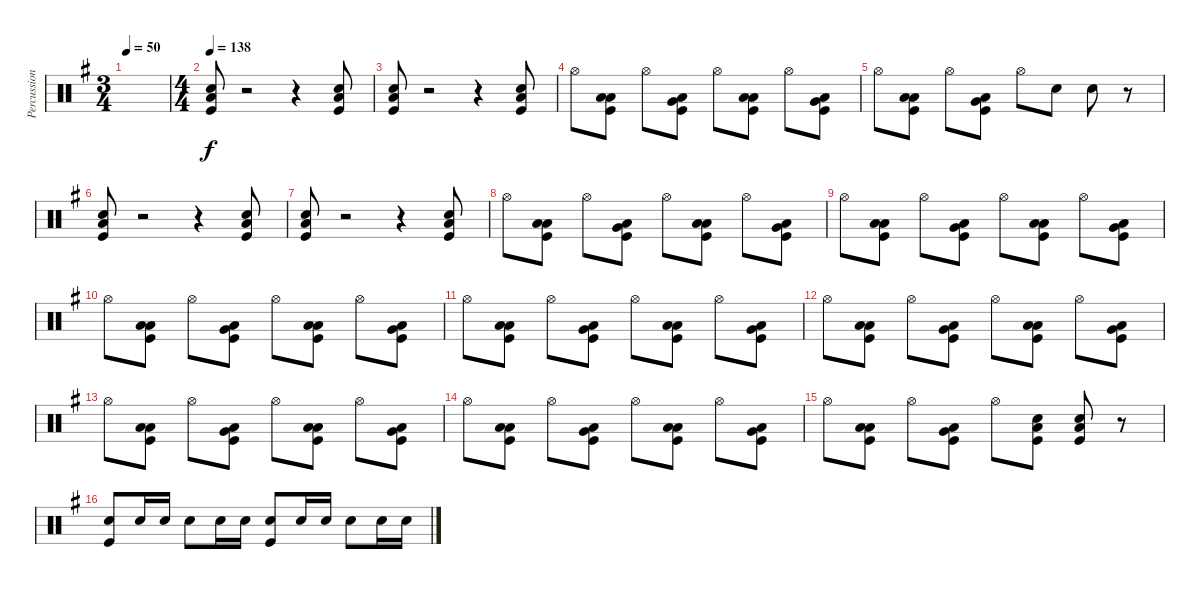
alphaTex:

\track ("Percussion" "Percussion") {instrument percussion}
\staff {score}
\articulation defaults
\ts (3 4)
\tempo 50
\clef neutral
\ks g
|
\ts (4 4)
\tempo 138
("Snare (hit) 2" "Low Floor Tom (hit)" "Kick (hit)").8 r.2 r.4 ("Snare (hit) 2" "Low Floor Tom (hit)" "Kick (hit)").8 |
("Snare (hit) 2" "Low Floor Tom (hit)" "Kick (hit)").8 r.2 r.4 ("Snare (hit) 2" "Low Floor Tom (hit)" "Kick (hit)").8 |
"Hi-Hat (open)".8 ("Low Tom (hit)" "Low Floor Tom (hit)" "Kick (hit)").8 "Hi-Hat (open)".8 ("Very Low Tom (hit)" "Low Floor Tom (hit)" "Kick (hit)").8 "Hi-Hat (open)".8 ("Low Floor Tom (hit)" "Low Floor Tom (hit)" "Kick (hit)").8 "Hi-Hat (open)".8 ("Very Low Tom (hit)" "Low Floor Tom (hit)" "Kick (hit)").8 |
"Hi-Hat (open)".8 ("Low Tom (hit)" "Low Floor Tom (hit)" "Kick (hit)").8 "Hi-Hat (open)".8 ("Very Low Tom (hit)" "Low Floor Tom (hit)" "Kick (hit)").8 "Hi-Hat (open)".8 "Snare (hit) 2".8 "Snare (hit) 2".8 r.8 |
("Snare (hit) 2" "Low Floor Tom (hit)" "Kick (hit)").8 r.2 r.4 ("Snare (hit) 2" "Low Floor Tom (hit)" "Kick (hit)").8 |
("Snare (hit) 2" "Low Floor Tom (hit)" "Kick (hit)").8 r.2 r.4 ("Snare (hit) 2" "Low Floor Tom (hit)" "Kick (hit)").8 |
"Hi-Hat (open)".8 ("Low Tom (hit)" "Low Floor Tom (hit)" "Kick (hit)").8 "Hi-Hat (open)".8 ("Very Low Tom (hit)" "Low Floor Tom (hit)" "Kick (hit)").8 "Hi-Hat (open)".8 ("Low Floor Tom (hit)" "Low Floor Tom (hit)" "Kick (hit)").8 "Hi-Hat (open)".8 ("Very Low Tom (hit)" "Low Floor Tom (hit)" "Kick (hit)").8 |
"Hi-Hat (open)".8 ("Low Tom (hit)" "Low Floor Tom (hit)" "Kick (hit)").8 "Hi-Hat (open)".8 ("Very Low Tom (hit)" "Low Floor Tom (hit)" "Kick (hit)").8 "Hi-Hat (open)".8 ("Low Floor Tom (hit)" "Low Floor Tom (hit)" "Kick (hit)").8 "Hi-Hat (open)".8 ("Very Low Tom (hit)" "Low Floor Tom (hit)" "Kick (hit)").8 |
"Hi-Hat (open)".8 ("Low Tom (hit)" "Low Floor Tom (hit)" "Kick (hit)").8 "Hi-Hat (open)".8 ("Very Low Tom (hit)" "Low Floor Tom (hit)" "Kick (hit)").8 "Hi-Hat (open)".8 ("Low Floor Tom (hit)" "Low Floor Tom (hit)" "Kick (hit)").8 "Hi-Hat (open)".8 ("Very Low Tom (hit)" "Low Floor Tom (hit)" "Kick (hit)").8 |
"Hi-Hat (open)".8 ("Low Tom (hit)" "Low Floor Tom (hit)" "Kick (hit)").8 "Hi-Hat (open)".8 ("Very Low Tom (hit)" "Low Floor Tom (hit)" "Kick (hit)").8 "Hi-Hat (open)".8 ("Low Floor Tom (hit)" "Low Floor Tom (hit)" "Kick (hit)").8 "Hi-Hat (open)".8 ("Very Low Tom (hit)" "Low Floor Tom (hit)" "Kick (hit)").8 |
"Hi-Hat (open)".8 ("Low Tom (hit)" "Low Floor Tom (hit)" "Kick (hit)").8 "Hi-Hat (open)".8 ("Very Low Tom (hit)" "Low Floor Tom (hit)" "Kick (hit)").8 "Hi-Hat (open)".8 ("Low Floor Tom (hit)" "Low Floor Tom (hit)" "Kick (hit)").8 "Hi-Hat (open)".8 ("Very Low Tom (hit)" "Low Floor Tom (hit)" "Kick (hit)").8 |
"Hi-Hat (open)".8 ("Low Tom (hit)" "Low Floor Tom (hit)" "Kick (hit)").8 "Hi-Hat (open)".8 ("Very Low Tom (hit)" "Low Floor Tom (hit)" "Kick (hit)").8 "Hi-Hat (open)".8 ("Low Floor Tom (hit)" "Low Floor Tom (hit)" "Kick (hit)").8 "Hi-Hat (open)".8 ("Very Low Tom (hit)" "Low Floor Tom (hit)" "Kick (hit)").8 |
"Hi-Hat (open)".8 ("Low Tom (hit)" "Low Floor Tom (hit)" "Kick (hit)").8 "Hi-Hat (open)".8 ("Very Low Tom (hit)" "Low Floor Tom (hit)" "Kick (hit)").8 "Hi-Hat (open)".8 ("Low Floor Tom (hit)" "Low Floor Tom (hit)" "Kick (hit)").8 "Hi-Hat (open)".8 ("Very Low Tom (hit)" "Low Floor Tom (hit)" "Kick (hit)").8 |
"Hi-Hat (open)".8 ("Low Tom (hit)" "Low Floor Tom (hit)" "Kick (hit)").8 "Hi-Hat (open)".8 ("Very Low Tom (hit)" "Low Floor Tom (hit)" "Kick (hit)").8 "Hi-Hat (open)".8 ("Snare (hit) 2" "Low Floor Tom (hit)" "Kick (hit)").8 ("Snare (hit) 2" "Low Floor Tom (hit)" "Kick (hit)").8 r.8 |
("Snare (hit) 2" "Kick (hit)").8 "Snare (hit) 2".16 "Snare (hit) 2".16 "Snare (hit) 2".8 "Snare (hit) 2".16 "Snare (hit) 2".16 ("Snare (hit) 2" "Kick (hit)").8 "Snare (hit) 2".16 "Snare (hit) 2".16 "Snare (hit) 2".8 "Snare (hit) 2".16 "Snare (hit) 2".16
